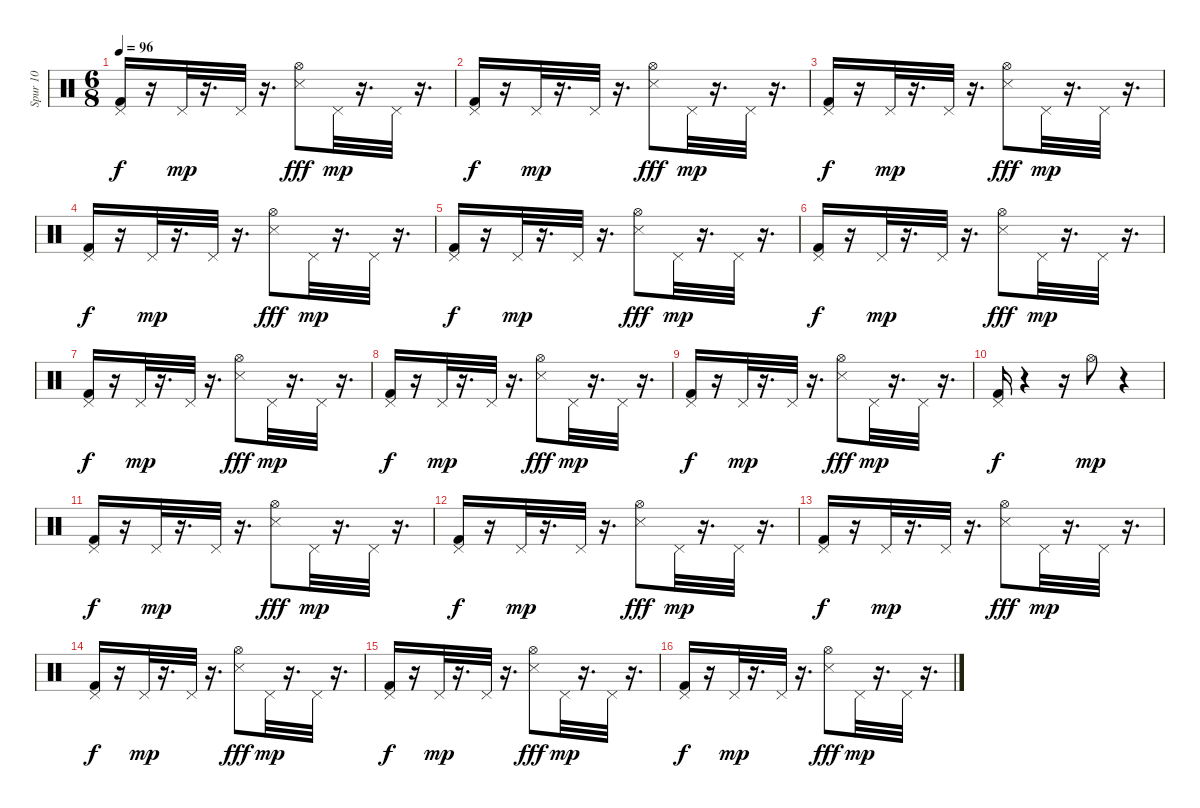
\track ("Spur 10" "Spur 10") {instrument percussion}
\staff {score}
\articulation defaults
\ts (6 8)
\tempo 96
\clef neutral
\ks c
("Pedal Hi-Hat (hit)" "Kick (hit) 2").16{dy f} r.16 "Pedal Hi-Hat (hit)".32{dy mp} r.16{d} "Pedal Hi-Hat (hit)".32 r.16{d} ("Snare (side stick) 3" "Hi-Hat (open)").8{dy fff} "Pedal Hi-Hat (hit)".32{dy mp} r.16{d} "Pedal Hi-Hat (hit)".32 r.16{d} |
("Pedal Hi-Hat (hit)" "Kick (hit) 2").16{dy f} r.16 "Pedal Hi-Hat (hit)".32{dy mp} r.16{d} "Pedal Hi-Hat (hit)".32 r.16{d} ("Snare (side stick) 3" "Hi-Hat (open)").8{dy fff} "Pedal Hi-Hat (hit)".32{dy mp} r.16{d} "Pedal Hi-Hat (hit)".32 r.16{d} |
("Pedal Hi-Hat (hit)" "Kick (hit) 2").16{dy f} r.16 "Pedal Hi-Hat (hit)".32{dy mp} r.16{d} "Pedal Hi-Hat (hit)".32 r.16{d} ("Snare (side stick) 3" "Hi-Hat (open)").8{dy fff} "Pedal Hi-Hat (hit)".32{dy mp} r.16{d} "Pedal Hi-Hat (hit)".32 r.16{d} |
("Pedal Hi-Hat (hit)" "Kick (hit) 2").16{dy f} r.16 "Pedal Hi-Hat (hit)".32{dy mp} r.16{d} "Pedal Hi-Hat (hit)".32 r.16{d} ("Snare (side stick) 3" "Hi-Hat (open)").8{dy fff} "Pedal Hi-Hat (hit)".32{dy mp} r.16{d} "Pedal Hi-Hat (hit)".32 r.16{d} |
("Pedal Hi-Hat (hit)" "Kick (hit) 2").16{dy f} r.16 "Pedal Hi-Hat (hit)".32{dy mp} r.16{d} "Pedal Hi-Hat (hit)".32 r.16{d} ("Snare (side stick) 3" "Hi-Hat (open)").8{dy fff} "Pedal Hi-Hat (hit)".32{dy mp} r.16{d} "Pedal Hi-Hat (hit)".32 r.16{d} |
("Pedal Hi-Hat (hit)" "Kick (hit) 2").16{dy f} r.16 "Pedal Hi-Hat (hit)".32{dy mp} r.16{d} "Pedal Hi-Hat (hit)".32 r.16{d} ("Snare (side stick) 3" "Hi-Hat (open)").8{dy fff} "Pedal Hi-Hat (hit)".32{dy mp} r.16{d} "Pedal Hi-Hat (hit)".32 r.16{d} |
("Pedal Hi-Hat (hit)" "Kick (hit) 2").16{dy f} r.16 "Pedal Hi-Hat (hit)".32{dy mp} r.16{d} "Pedal Hi-Hat (hit)".32 r.16{d} ("Snare (side stick) 3" "Hi-Hat (open)").8{dy fff} "Pedal Hi-Hat (hit)".32{dy mp} r.16{d} "Pedal Hi-Hat (hit)".32 r.16{d} |
("Pedal Hi-Hat (hit)" "Kick (hit) 2").16{dy f} r.16 "Pedal Hi-Hat (hit)".32{dy mp} r.16{d} "Pedal Hi-Hat (hit)".32 r.16{d} ("Snare (side stick) 3" "Hi-Hat (open)").8{dy fff} "Pedal Hi-Hat (hit)".32{dy mp} r.16{d} "Pedal Hi-Hat (hit)".32 r.16{d} |
("Pedal Hi-Hat (hit)" "Kick (hit) 2").16{dy f} r.16 "Pedal Hi-Hat (hit)".32{dy mp} r.16{d} "Pedal Hi-Hat (hit)".32 r.16{d} ("Snare (side stick) 3" "Hi-Hat (open)").8{dy fff} "Pedal Hi-Hat (hit)".32{dy mp} r.16{d} "Pedal Hi-Hat (hit)".32 r.16{d} |
("Pedal Hi-Hat (hit)" "Kick (hit) 2").16{dy f} r.4 r.16 "Hi-Hat (open)".8{dy mp} r.4 |
("Pedal Hi-Hat (hit)" "Kick (hit) 2").16{dy f} r.16 "Pedal Hi-Hat (hit)".32{dy mp} r.16{d} "Pedal Hi-Hat (hit)".32 r.16{d} ("Snare (side stick) 3" "Hi-Hat (open)").8{dy fff} "Pedal Hi-Hat (hit)".32{dy mp} r.16{d} "Pedal Hi-Hat (hit)".32 r.16{d} |
("Pedal Hi-Hat (hit)" "Kick (hit) 2").16{dy f} r.16 "Pedal Hi-Hat (hit)".32{dy mp} r.16{d} "Pedal Hi-Hat (hit)".32 r.16{d} ("Snare (side stick) 3" "Hi-Hat (open)").8{dy fff} "Pedal Hi-Hat (hit)".32{dy mp} r.16{d} "Pedal Hi-Hat (hit)".32 r.16{d} |
("Pedal Hi-Hat (hit)" "Kick (hit) 2").16{dy f} r.16 "Pedal Hi-Hat (hit)".32{dy mp} r.16{d} "Pedal Hi-Hat (hit)".32 r.16{d} ("Snare (side stick) 3" "Hi-Hat (open)").8{dy fff} "Pedal Hi-Hat (hit)".32{dy mp} r.16{d} "Pedal Hi-Hat (hit)".32 r.16{d} |
("Pedal Hi-Hat (hit)" "Kick (hit) 2").16{dy f} r.16 "Pedal Hi-Hat (hit)".32{dy mp} r.16{d} "Pedal Hi-Hat (hit)".32 r.16{d} ("Snare (side stick) 3" "Hi-Hat (open)").8{dy fff} "Pedal Hi-Hat (hit)".32{dy mp} r.16{d} "Pedal Hi-Hat (hit)".32 r.16{d} |
("Pedal Hi-Hat (hit)" "Kick (hit) 2").16{dy f} r.16 "Pedal Hi-Hat (hit)".32{dy mp} r.16{d} "Pedal Hi-Hat (hit)".32 r.16{d} ("Snare (side stick) 3" "Hi-Hat (open)").8{dy fff} "Pedal Hi-Hat (hit)".32{dy mp} r.16{d} "Pedal Hi-Hat (hit)".32 r.16{d} |
("Pedal Hi-Hat (hit)" "Kick (hit) 2").16{dy f} r.16 "Pedal Hi-Hat (hit)".32{dy mp} r.16{d} "Pedal Hi-Hat (hit)".32 r.16{d} ("Snare (side stick) 3" "Hi-Hat (open)").8{dy fff} "Pedal Hi-Hat (hit)".32{dy mp} r.16{d} "Pedal Hi-Hat (hit)".32 r.16{d}
